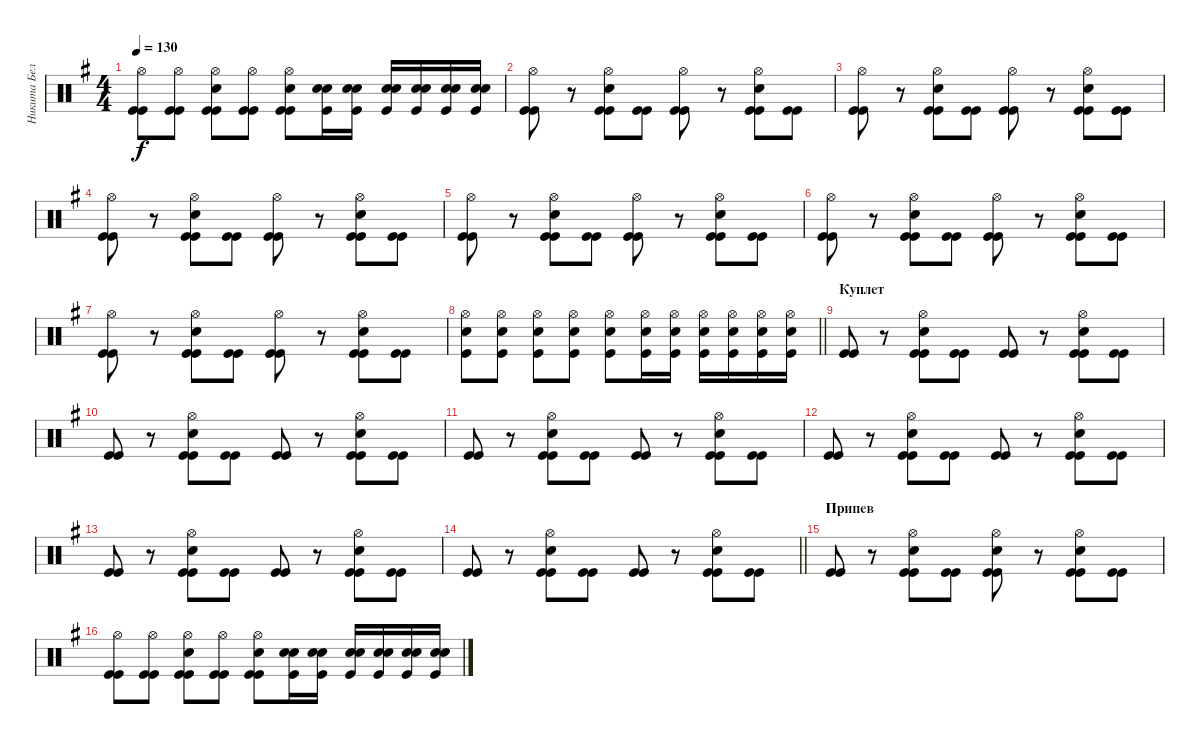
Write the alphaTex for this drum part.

\track ("Никита Белозёров" "Никита Бел") {instrument percussion}
\staff {score}
\articulation defaults
\ts (4 4)
\tempo 130
\clef neutral
\ks eminor
("Hi-Hat (open)" "Kick (hit)" "Kick (hit)").8{dy f} ("Hi-Hat (open)" "Kick (hit)" "Kick (hit)").8 ("Hi-Hat (open)" "Kick (hit)" "Kick (hit)" "Snare (hit) 2").8 ("Hi-Hat (open)" "Kick (hit)" "Kick (hit)").8 ("Hi-Hat (open)" "Kick (hit)" "Kick (hit)" "Snare (hit) 2").8 ("Kick (hit)" "Electric Snare (hit)" "Snare (hit) 2").16 ("Kick (hit)" "Electric Snare (hit)" "Snare (hit) 2").16 ("Kick (hit)" "Electric Snare (hit)" "Snare (hit) 2").16 ("Kick (hit)" "Electric Snare (hit)" "Snare (hit) 2").16 ("Kick (hit)" "Electric Snare (hit)" "Snare (hit) 2").16 ("Kick (hit)" "Electric Snare (hit)" "Snare (hit) 2").16 |
("Hi-Hat (open)" "Kick (hit)" "Kick (hit)").8 r.8 ("Hi-Hat (open)" "Kick (hit)" "Kick (hit)" "Snare (hit) 2").8 ("Kick (hit)" "Kick (hit)").8 ("Hi-Hat (open)" "Kick (hit)" "Kick (hit)").8 r.8 ("Hi-Hat (open)" "Kick (hit)" "Kick (hit)" "Snare (hit) 2").8 ("Kick (hit)" "Kick (hit)").8 |
("Hi-Hat (open)" "Kick (hit)" "Kick (hit)").8 r.8 ("Hi-Hat (open)" "Kick (hit)" "Kick (hit)" "Snare (hit) 2").8 ("Kick (hit)" "Kick (hit)").8 ("Hi-Hat (open)" "Kick (hit)" "Kick (hit)").8 r.8 ("Hi-Hat (open)" "Kick (hit)" "Kick (hit)" "Snare (hit) 2").8 ("Kick (hit)" "Kick (hit)").8 |
("Hi-Hat (open)" "Kick (hit)" "Kick (hit)").8 r.8 ("Hi-Hat (open)" "Kick (hit)" "Kick (hit)" "Snare (hit) 2").8 ("Kick (hit)" "Kick (hit)").8 ("Hi-Hat (open)" "Kick (hit)" "Kick (hit)").8 r.8 ("Hi-Hat (open)" "Kick (hit)" "Kick (hit)" "Snare (hit) 2").8 ("Kick (hit)" "Kick (hit)").8 |
("Hi-Hat (open)" "Kick (hit)" "Kick (hit)").8 r.8 ("Hi-Hat (open)" "Kick (hit)" "Kick (hit)" "Snare (hit) 2").8 ("Kick (hit)" "Kick (hit)").8 ("Hi-Hat (open)" "Kick (hit)" "Kick (hit)").8 r.8 ("Hi-Hat (open)" "Kick (hit)" "Kick (hit)" "Snare (hit) 2").8 ("Kick (hit)" "Kick (hit)").8 |
("Hi-Hat (open)" "Kick (hit)" "Kick (hit)").8 r.8 ("Hi-Hat (open)" "Kick (hit)" "Kick (hit)" "Snare (hit) 2").8 ("Kick (hit)" "Kick (hit)").8 ("Hi-Hat (open)" "Kick (hit)" "Kick (hit)").8 r.8 ("Hi-Hat (open)" "Kick (hit)" "Kick (hit)" "Snare (hit) 2").8 ("Kick (hit)" "Kick (hit)").8 |
("Hi-Hat (open)" "Kick (hit)" "Kick (hit)").8 r.8 ("Hi-Hat (open)" "Kick (hit)" "Kick (hit)" "Snare (hit) 2").8 ("Kick (hit)" "Kick (hit)").8 ("Hi-Hat (open)" "Kick (hit)" "Kick (hit)").8 r.8 ("Hi-Hat (open)" "Kick (hit)" "Kick (hit)" "Snare (hit) 2").8 ("Kick (hit)" "Kick (hit)").8 |
\barLineRight lightlight
("Hi-Hat (open)" "Kick (hit)" "Snare (hit) 2").8 ("Hi-Hat (open)" "Kick (hit)" "Snare (hit) 2").8 ("Hi-Hat (open)" "Kick (hit)" "Snare (hit) 2").8 ("Hi-Hat (open)" "Kick (hit)" "Snare (hit) 2").8 ("Hi-Hat (open)" "Kick (hit)" "Snare (hit) 2").8 ("Hi-Hat (open)" "Kick (hit)" "Snare (hit) 2").16 ("Hi-Hat (open)" "Kick (hit)" "Snare (hit) 2").16 ("Hi-Hat (open)" "Kick (hit)" "Snare (hit) 2").16 ("Hi-Hat (open)" "Kick (hit)" "Snare (hit) 2").16 ("Hi-Hat (open)" "Kick (hit)" "Snare (hit) 2").16 ("Hi-Hat (open)" "Kick (hit)" "Snare (hit) 2").16 |
\section ("" "Куплет")
("Kick (hit)" "Kick (hit)").8 r.8 ("Hi-Hat (open)" "Kick (hit)" "Kick (hit)" "Snare (hit) 2").8 ("Kick (hit)" "Kick (hit)").8 ("Kick (hit)" "Kick (hit)").8 r.8 ("Hi-Hat (open)" "Kick (hit)" "Kick (hit)" "Snare (hit) 2").8 ("Kick (hit)" "Kick (hit)").8 |
("Kick (hit)" "Kick (hit)").8 r.8 ("Hi-Hat (open)" "Kick (hit)" "Kick (hit)" "Snare (hit) 2").8 ("Kick (hit)" "Kick (hit)").8 ("Kick (hit)" "Kick (hit)").8 r.8 ("Hi-Hat (open)" "Kick (hit)" "Kick (hit)" "Snare (hit) 2").8 ("Kick (hit)" "Kick (hit)").8 |
("Kick (hit)" "Kick (hit)").8 r.8 ("Hi-Hat (open)" "Kick (hit)" "Kick (hit)" "Snare (hit) 2").8 ("Kick (hit)" "Kick (hit)").8 ("Kick (hit)" "Kick (hit)").8 r.8 ("Hi-Hat (open)" "Kick (hit)" "Kick (hit)" "Snare (hit) 2").8 ("Kick (hit)" "Kick (hit)").8 |
("Kick (hit)" "Kick (hit)").8 r.8 ("Hi-Hat (open)" "Kick (hit)" "Kick (hit)" "Snare (hit) 2").8 ("Kick (hit)" "Kick (hit)").8 ("Kick (hit)" "Kick (hit)").8 r.8 ("Hi-Hat (open)" "Kick (hit)" "Kick (hit)" "Snare (hit) 2").8 ("Kick (hit)" "Kick (hit)").8 |
("Kick (hit)" "Kick (hit)").8 r.8 ("Hi-Hat (open)" "Kick (hit)" "Kick (hit)" "Snare (hit) 2").8 ("Kick (hit)" "Kick (hit)").8 ("Kick (hit)" "Kick (hit)").8 r.8 ("Hi-Hat (open)" "Kick (hit)" "Kick (hit)" "Snare (hit) 2").8 ("Kick (hit)" "Kick (hit)").8 |
\barLineRight lightlight
("Kick (hit)" "Kick (hit)").8 r.8 ("Hi-Hat (open)" "Kick (hit)" "Kick (hit)" "Snare (hit) 2").8 ("Kick (hit)" "Kick (hit)").8 ("Kick (hit)" "Kick (hit)").8 r.8 ("Hi-Hat (open)" "Kick (hit)" "Kick (hit)" "Snare (hit) 2").8 ("Kick (hit)" "Kick (hit)").8 |
\section ("" "Припев")
("Kick (hit)" "Kick (hit)").8 r.8 ("Hi-Hat (open)" "Kick (hit)" "Kick (hit)" "Snare (hit) 2").8 ("Kick (hit)" "Kick (hit)").8 ("Hi-Hat (open)" "Kick (hit)" "Kick (hit)" "Snare (hit) 2").8 r.8 ("Hi-Hat (open)" "Kick (hit)" "Kick (hit)" "Snare (hit) 2").8 ("Kick (hit)" "Kick (hit)").8 |
("Hi-Hat (open)" "Kick (hit)" "Kick (hit)").8 ("Hi-Hat (open)" "Kick (hit)" "Kick (hit)").8 ("Hi-Hat (open)" "Kick (hit)" "Kick (hit)" "Snare (hit) 2").8 ("Hi-Hat (open)" "Kick (hit)" "Kick (hit)").8 ("Hi-Hat (open)" "Kick (hit)" "Kick (hit)" "Snare (hit) 2").8 ("Kick (hit)" "Electric Snare (hit)" "Snare (hit) 2").16 ("Kick (hit)" "Electric Snare (hit)" "Snare (hit) 2").16 ("Kick (hit)" "Electric Snare (hit)" "Snare (hit) 2").16 ("Kick (hit)" "Electric Snare (hit)" "Snare (hit) 2").16 ("Kick (hit)" "Electric Snare (hit)" "Snare (hit) 2").16 ("Kick (hit)" "Electric Snare (hit)" "Snare (hit) 2").16
